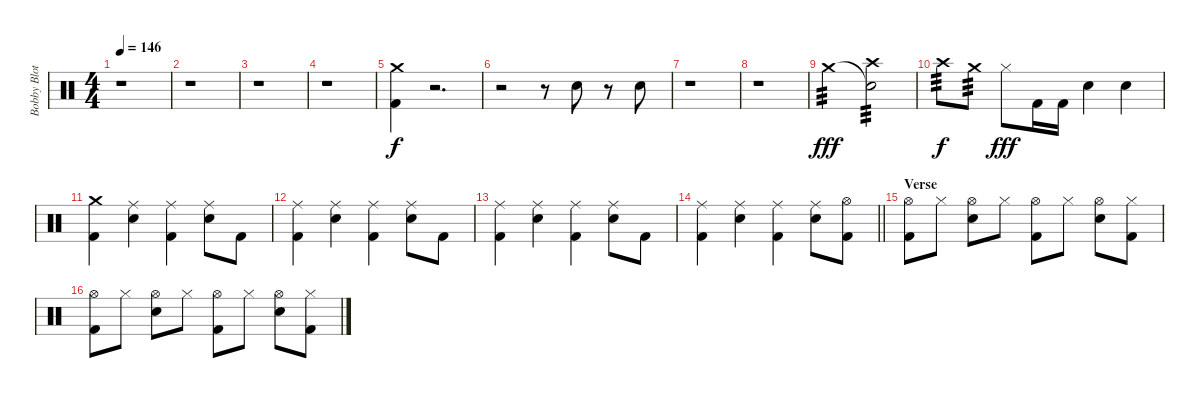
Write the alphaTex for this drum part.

\track ("Bobby Blotzer - Drums" "Bobby Blot") {instrument percussion}
\staff {score}
\articulation defaults
\ts (4 4)
\tempo 146
\clef neutral
\ks c
r.1{dy f} |
r.1 |
r.1 |
r.1 |
("Crash medium (hit)" "Kick (hit) 2").4 r.2{d} |
r.2 r.8 "Snare (hit) 2".8 r.8 "Snare (hit) 2".8 |
r.1 |
r.1{volume 0} |
"Crash medium (hit)".2{tp 3 dy fff volume 16} ("Snare (hit)"{t} "Crash high (hit)").2{tp 3} |
"Crash high (hit)".8{tp 3 dy f} "Crash medium (hit)".8{tp 3} "Hi-Hat (closed)".8{dy fff} "Kick (hit) 2".16 "Kick (hit) 2".16 "Snare (hit) 2".4 "Snare (hit) 2".4 |
("Crash medium (hit)" "Kick (hit) 2").4 ("Ride (middle)" "Snare (hit) 2").4 ("Ride (middle)" "Kick (hit) 2").4 ("Ride (middle)" "Snare (hit) 2").8 "Kick (hit) 2".8 |
("Ride (middle)" "Kick (hit) 2").4 ("Ride (middle)" "Snare (hit) 2").4 ("Ride (middle)" "Kick (hit) 2").4 ("Ride (middle)" "Snare (hit) 2").8 "Kick (hit) 2".8 |
("Ride (middle)" "Kick (hit) 2").4 ("Ride (middle)" "Snare (hit) 2").4 ("Ride (middle)" "Kick (hit) 2").4 ("Ride (middle)" "Snare (hit) 2").8 "Kick (hit) 2".8 |
\barLineRight lightlight
("Ride (middle)" "Kick (hit) 2").4 ("Ride (middle)" "Snare (hit) 2").4 ("Ride (middle)" "Kick (hit) 2").4 ("Ride (middle)" "Snare (hit) 2").8 ("Hi-Hat (open)" "Kick (hit) 2").8 |
\section ("" "Verse")
("Hi-Hat (open)" "Kick (hit) 2").8 "Hi-Hat (closed)".8 ("Hi-Hat (open)" "Snare (hit) 2").8 "Hi-Hat (closed)".8 ("Hi-Hat (open)" "Kick (hit) 2").8 "Hi-Hat (closed)".8 ("Hi-Hat (open)" "Snare (hit) 2").8 ("Hi-Hat (closed)" "Kick (hit) 2").8 |
("Hi-Hat (open)" "Kick (hit) 2").8 "Hi-Hat (closed)".8 ("Hi-Hat (open)" "Snare (hit) 2").8 "Hi-Hat (closed)".8 ("Hi-Hat (open)" "Kick (hit) 2").8 "Hi-Hat (closed)".8 ("Hi-Hat (open)" "Snare (hit) 2").8 ("Hi-Hat (closed)" "Kick (hit) 2").8
